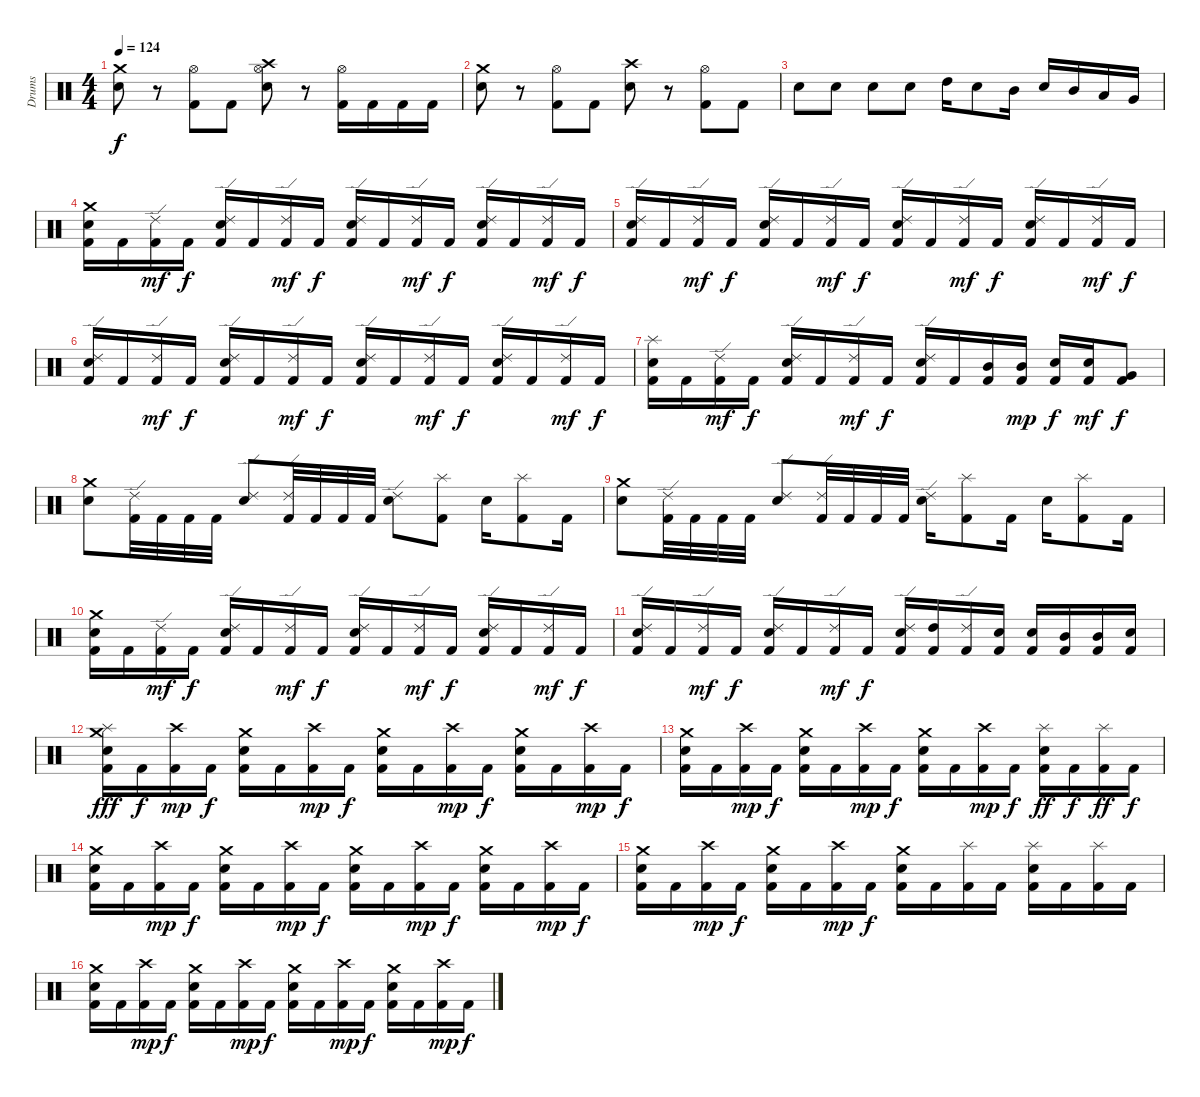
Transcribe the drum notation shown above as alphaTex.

\track ("Drums" "Drums") {instrument percussion}
\staff {score}
\articulation defaults
\ts (4 4)
\tempo 124
\clef neutral
\ks c
("Crash medium (hit)" "Electric Snare (hit)").8{dy f} r.8 ("Hi-Hat (open)" "Kick (hit) 2").8 "Kick (hit) 2".8 ("Crash high (hit)" "Hi-Hat (open)" "Electric Snare (hit)").8 r.8 ("Hi-Hat (open)" "Kick (hit) 2").16 "Kick (hit) 2".16 "Kick (hit) 2".16 "Kick (hit) 2".16 |
("Crash medium (hit)" "Electric Snare (hit)").8 r.8 ("Hi-Hat (open)" "Kick (hit) 2").8 "Kick (hit) 2".8 ("Crash high (hit)" "Electric Snare (hit)").8 r.8 ("Hi-Hat (open)" "Kick (hit) 2").8 "Kick (hit) 2".8 |
"Electric Snare (hit)".8 "Electric Snare (hit)".8 "Electric Snare (hit)".8 "Electric Snare (hit)".8 "High Tom (hit)".16 "Electric Snare (hit)".8 "Mid Tom (hit)".16 "Electric Snare (hit)".16 "Mid Tom (hit)".16 "Low Tom (hit)".16 "Very Low Tom (hit)".16 |
("Crash medium (hit)" "Electric Snare (hit)" "Kick (hit) 2").16 "Kick (hit) 2".16 ("Ride (edge) 2" "Kick (hit) 2").16{dy mf} "Kick (hit) 2".16{dy f} ("Ride (edge) 2" "Electric Snare (hit)" "Kick (hit) 2").16 "Kick (hit) 2".16 ("Ride (edge) 2" "Kick (hit) 2").16{dy mf} "Kick (hit) 2".16{dy f} ("Ride (edge) 2" "Electric Snare (hit)" "Kick (hit) 2").16 "Kick (hit) 2".16 ("Ride (edge) 2" "Kick (hit) 2").16{dy mf} "Kick (hit) 2".16{dy f} ("Ride (edge) 2" "Electric Snare (hit)" "Kick (hit) 2").16 "Kick (hit) 2".16 ("Ride (edge) 2" "Kick (hit) 2").16{dy mf} "Kick (hit) 2".16{dy f} |
("Ride (edge) 2" "Electric Snare (hit)" "Kick (hit) 2").16 "Kick (hit) 2".16 ("Ride (edge) 2" "Kick (hit) 2").16{dy mf} "Kick (hit) 2".16{dy f} ("Ride (edge) 2" "Electric Snare (hit)" "Kick (hit) 2").16 "Kick (hit) 2".16 ("Ride (edge) 2" "Kick (hit) 2").16{dy mf} "Kick (hit) 2".16{dy f} ("Ride (edge) 2" "Electric Snare (hit)" "Kick (hit) 2").16 "Kick (hit) 2".16 ("Ride (edge) 2" "Kick (hit) 2").16{dy mf} "Kick (hit) 2".16{dy f} ("Ride (edge) 2" "Electric Snare (hit)" "Kick (hit) 2").16 "Kick (hit) 2".16 ("Ride (edge) 2" "Kick (hit) 2").16{dy mf} "Kick (hit) 2".16{dy f} |
("Ride (edge) 2" "Electric Snare (hit)" "Kick (hit) 2").16 "Kick (hit) 2".16 ("Ride (edge) 2" "Kick (hit) 2").16{dy mf} "Kick (hit) 2".16{dy f} ("Ride (edge) 2" "Electric Snare (hit)" "Kick (hit) 2").16 "Kick (hit) 2".16 ("Ride (edge) 2" "Kick (hit) 2").16{dy mf} "Kick (hit) 2".16{dy f} ("Ride (edge) 2" "Electric Snare (hit)" "Kick (hit) 2").16 "Kick (hit) 2".16 ("Ride (edge) 2" "Kick (hit) 2").16{dy mf} "Kick (hit) 2".16{dy f} ("Ride (edge) 2" "Electric Snare (hit)" "Kick (hit) 2").16 "Kick (hit) 2".16 ("Ride (edge) 2" "Kick (hit) 2").16{dy mf} "Kick (hit) 2".16{dy f} |
("Splash (hit)" "Electric Snare (hit)" "Kick (hit) 2").16 "Kick (hit) 2".16 ("Ride (edge) 2" "Kick (hit) 2").16{dy mf} "Kick (hit) 2".16{dy f} ("Ride (edge) 2" "Electric Snare (hit)" "Kick (hit) 2").16 "Kick (hit) 2".16 ("Ride (edge) 2" "Kick (hit) 2").16{dy mf} "Kick (hit) 2".16{dy f} ("Ride (edge) 2" "Electric Snare (hit)" "Kick (hit) 2").16 "Kick (hit) 2".16 ("Mid Tom (hit)" "Kick (hit) 2").16 ("Mid Tom (hit)" "Kick (hit) 2").16{dy mp} ("Electric Snare (hit)" "Kick (hit) 2").16{dy f} ("Electric Snare (hit)" "Kick (hit) 2").16{dy mf} ("Very Low Tom (hit)" "Kick (hit) 2").8{dy f} |
("Crash medium (hit)" "Electric Snare (hit)").8 ("Ride (edge) 2" "Kick (hit) 2").32 "Kick (hit) 2".32 "Kick (hit) 2".32 "Kick (hit) 2".32 ("Ride (edge) 2" "Electric Snare (hit)").8 ("Ride (edge) 2" "Kick (hit) 2").32 "Kick (hit) 2".32 "Kick (hit) 2".32 "Kick (hit) 2".32 ("Ride (edge) 2" "Electric Snare (hit)").8 ("Splash (hit)" "Kick (hit) 2").8 "Electric Snare (hit)".16 ("Splash (hit)" "Kick (hit) 2").8 "Kick (hit) 2".16 |
("Crash medium (hit)" "Electric Snare (hit)").8 ("Ride (edge) 2" "Kick (hit) 2").32 "Kick (hit) 2".32 "Kick (hit) 2".32 "Kick (hit) 2".32 ("Ride (edge) 2" "Electric Snare (hit)").8 ("Ride (edge) 2" "Kick (hit) 2").32 "Kick (hit) 2".32 "Kick (hit) 2".32 "Kick (hit) 2".32 ("Ride (edge) 2" "Electric Snare (hit)").16 ("Splash (hit)" "Kick (hit) 2").8 "Kick (hit) 2".16 "Electric Snare (hit)".16 ("Splash (hit)" "Kick (hit) 2").8 "Kick (hit) 2".16 |
("Crash medium (hit)" "Electric Snare (hit)" "Kick (hit) 2").16 "Kick (hit) 2".16 ("Ride (edge) 2" "Kick (hit) 2").16{dy mf} "Kick (hit) 2".16{dy f} ("Ride (edge) 2" "Electric Snare (hit)" "Kick (hit) 2").16 "Kick (hit) 2".16 ("Ride (edge) 2" "Kick (hit) 2").16{dy mf} "Kick (hit) 2".16{dy f} ("Ride (edge) 2" "Electric Snare (hit)" "Kick (hit) 2").16 "Kick (hit) 2".16 ("Ride (edge) 2" "Kick (hit) 2").16{dy mf} "Kick (hit) 2".16{dy f} ("Ride (edge) 2" "Electric Snare (hit)" "Kick (hit) 2").16 "Kick (hit) 2".16 ("Ride (edge) 2" "Kick (hit) 2").16{dy mf} "Kick (hit) 2".16{dy f} |
("Ride (edge) 2" "Electric Snare (hit)" "Kick (hit) 2").16 "Kick (hit) 2".16 ("Ride (edge) 2" "Kick (hit) 2").16{dy mf} "Kick (hit) 2".16{dy f} ("Ride (edge) 2" "Electric Snare (hit)" "Kick (hit) 2").16 "Kick (hit) 2".16 ("Ride (edge) 2" "Kick (hit) 2").16{dy mf} "Kick (hit) 2".16{dy f} ("Ride (edge) 2" "Electric Snare (hit)" "Kick (hit) 2").16 ("High Tom (hit)" "Kick (hit) 2").16 ("Ride (edge) 2" "Kick (hit) 2").16 ("Electric Snare (hit)" "Kick (hit) 2").16 ("Electric Snare (hit)" "Kick (hit) 2").16 ("Mid Tom (hit)" "Kick (hit) 2").16 ("Mid Tom (hit)" "Kick (hit) 2").16 ("Electric Snare (hit)" "Kick (hit) 2").16 |
("Crash medium (hit)" "Splash (hit)" "Electric Snare (hit)" "Kick (hit) 2").16{dy fff} "Kick (hit) 2".16{dy f} ("Crash high (hit)" "Kick (hit) 2").16{dy mp} "Kick (hit) 2".16{dy f} ("Crash medium (hit)" "Electric Snare (hit)" "Kick (hit) 2").16 "Kick (hit) 2".16 ("Crash high (hit)" "Kick (hit) 2").16{dy mp} "Kick (hit) 2".16{dy f} ("Crash medium (hit)" "Electric Snare (hit)" "Kick (hit) 2").16 "Kick (hit) 2".16 ("Crash high (hit)" "Kick (hit) 2").16{dy mp} "Kick (hit) 2".16{dy f} ("Crash medium (hit)" "Electric Snare (hit)" "Kick (hit) 2").16 "Kick (hit) 2".16 ("Crash high (hit)" "Kick (hit) 2").16{dy mp} "Kick (hit) 2".16{dy f} |
("Crash medium (hit)" "Electric Snare (hit)" "Kick (hit) 2").16 "Kick (hit) 2".16 ("Crash high (hit)" "Kick (hit) 2").16{dy mp} "Kick (hit) 2".16{dy f} ("Crash medium (hit)" "Electric Snare (hit)" "Kick (hit) 2").16 "Kick (hit) 2".16 ("Crash high (hit)" "Kick (hit) 2").16{dy mp} "Kick (hit) 2".16{dy f} ("Crash medium (hit)" "Electric Snare (hit)" "Kick (hit) 2").16 "Kick (hit) 2".16 ("Crash high (hit)" "Kick (hit) 2").16{dy mp} "Kick (hit) 2".16{dy f} ("Splash (hit)" "Electric Snare (hit)" "Kick (hit) 2").16{dy ff} "Kick (hit) 2".16{dy f} ("Splash (hit)" "Kick (hit) 2").16{dy ff} "Kick (hit) 2".16{dy f} |
("Crash medium (hit)" "Electric Snare (hit)" "Kick (hit) 2").16 "Kick (hit) 2".16 ("Crash high (hit)" "Kick (hit) 2").16{dy mp} "Kick (hit) 2".16{dy f} ("Crash medium (hit)" "Electric Snare (hit)" "Kick (hit) 2").16 "Kick (hit) 2".16 ("Crash high (hit)" "Kick (hit) 2").16{dy mp} "Kick (hit) 2".16{dy f} ("Crash medium (hit)" "Electric Snare (hit)" "Kick (hit) 2").16 "Kick (hit) 2".16 ("Crash high (hit)" "Kick (hit) 2").16{dy mp} "Kick (hit) 2".16{dy f} ("Crash medium (hit)" "Electric Snare (hit)" "Kick (hit) 2").16 "Kick (hit) 2".16 ("Crash high (hit)" "Kick (hit) 2").16{dy mp} "Kick (hit) 2".16{dy f} |
("Crash medium (hit)" "Electric Snare (hit)" "Kick (hit) 2").16 "Kick (hit) 2".16 ("Crash high (hit)" "Kick (hit) 2").16{dy mp} "Kick (hit) 2".16{dy f} ("Crash medium (hit)" "Electric Snare (hit)" "Kick (hit) 2").16 "Kick (hit) 2".16 ("Crash high (hit)" "Kick (hit) 2").16{dy mp} "Kick (hit) 2".16{dy f} ("Crash medium (hit)" "Electric Snare (hit)" "Kick (hit) 2").16 "Kick (hit) 2".16 ("Splash (hit)" "Kick (hit) 2").16 "Kick (hit) 2".16 ("Splash (hit)" "Electric Snare (hit)" "Kick (hit) 2").16 "Kick (hit) 2".16 ("Splash (hit)" "Kick (hit) 2").16 "Kick (hit) 2".16 |
("Crash medium (hit)" "Electric Snare (hit)" "Kick (hit) 2").16 "Kick (hit) 2".16 ("Crash high (hit)" "Kick (hit) 2").16{dy mp} "Kick (hit) 2".16{dy f} ("Crash medium (hit)" "Electric Snare (hit)" "Kick (hit) 2").16 "Kick (hit) 2".16 ("Crash high (hit)" "Kick (hit) 2").16{dy mp} "Kick (hit) 2".16{dy f} ("Crash medium (hit)" "Electric Snare (hit)" "Kick (hit) 2").16 "Kick (hit) 2".16 ("Crash high (hit)" "Kick (hit) 2").16{dy mp} "Kick (hit) 2".16{dy f} ("Crash medium (hit)" "Electric Snare (hit)" "Kick (hit) 2").16 "Kick (hit) 2".16 ("Crash high (hit)" "Kick (hit) 2").16{dy mp} "Kick (hit) 2".16{dy f}
